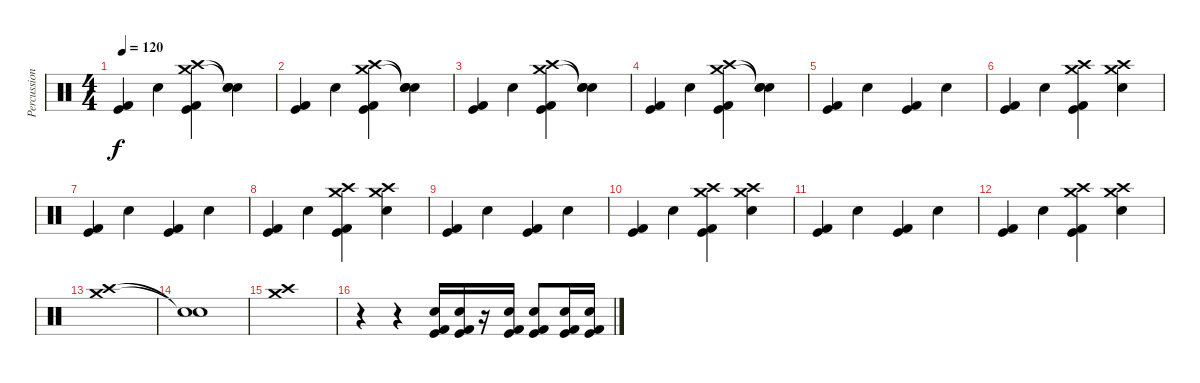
\track ("Percussion" "Percussion") {instrument percussion}
\staff {score}
\articulation defaults
\ts (4 4)
\tempo 120
\clef neutral
\ks c
("Kick (hit)" "Kick (hit) 2").4{dy f} "Snare (hit) 2".4 ("Crash medium (hit)" "Crash high (hit)" "Kick (hit) 2" "Kick (hit)").4 ("Snare (hit)"{t} "Snare (hit)"{t} "Snare (hit) 2").4 |
("Kick (hit)" "Kick (hit) 2").4 "Snare (hit) 2".4 ("Crash medium (hit)" "Crash high (hit)" "Kick (hit) 2" "Kick (hit)").4 ("Snare (hit)"{t} "Snare (hit)"{t} "Snare (hit) 2").4 |
("Kick (hit)" "Kick (hit) 2").4 "Snare (hit) 2".4 ("Crash medium (hit)" "Crash high (hit)" "Kick (hit) 2" "Kick (hit)").4 ("Snare (hit)"{t} "Snare (hit)"{t} "Snare (hit) 2").4 |
("Kick (hit)" "Kick (hit) 2").4 "Snare (hit) 2".4 ("Crash medium (hit)" "Crash high (hit)" "Kick (hit) 2" "Kick (hit)").4 ("Snare (hit)"{t} "Snare (hit)"{t} "Snare (hit) 2").4 |
("Kick (hit)" "Kick (hit) 2").4 "Snare (hit) 2".4 ("Kick (hit) 2" "Kick (hit)").4 "Snare (hit) 2".4 |
("Kick (hit)" "Kick (hit) 2").4 "Snare (hit) 2".4 ("Crash medium (hit)" "Crash high (hit)" "Kick (hit) 2" "Kick (hit)").4 ("Crash medium (hit)" "Crash high (hit)" "Snare (hit) 2").4 |
("Kick (hit)" "Kick (hit) 2").4 "Snare (hit) 2".4 ("Kick (hit) 2" "Kick (hit)").4 "Snare (hit) 2".4 |
("Kick (hit)" "Kick (hit) 2").4 "Snare (hit) 2".4 ("Crash medium (hit)" "Crash high (hit)" "Kick (hit) 2" "Kick (hit)").4 ("Crash medium (hit)" "Crash high (hit)" "Snare (hit) 2").4 |
("Kick (hit)" "Kick (hit) 2").4 "Snare (hit) 2".4 ("Kick (hit) 2" "Kick (hit)").4 "Snare (hit) 2".4 |
("Kick (hit)" "Kick (hit) 2").4 "Snare (hit) 2".4 ("Crash medium (hit)" "Crash high (hit)" "Kick (hit) 2" "Kick (hit)").4 ("Crash medium (hit)" "Crash high (hit)" "Snare (hit) 2").4 |
("Kick (hit)" "Kick (hit) 2").4 "Snare (hit) 2".4 ("Kick (hit) 2" "Kick (hit)").4 "Snare (hit) 2".4 |
("Kick (hit)" "Kick (hit) 2").4 "Snare (hit) 2".4 ("Crash medium (hit)" "Crash high (hit)" "Kick (hit) 2" "Kick (hit)").4 ("Crash medium (hit)" "Crash high (hit)" "Snare (hit) 2").4 |
("Crash medium (hit)" "Crash high (hit)").1 |
("Snare (hit)"{t} "Snare (hit)"{t}).1 |
("Crash medium (hit)" "Crash high (hit)").1 |
r.4 r.4 ("Snare (hit) 2" "Kick (hit) 2" "Kick (hit)").16 ("Snare (hit) 2" "Kick (hit) 2" "Kick (hit)").16 r.16 ("Snare (hit) 2" "Kick (hit) 2" "Kick (hit)").16 ("Snare (hit) 2" "Kick (hit) 2" "Kick (hit)").8 ("Snare (hit) 2" "Kick (hit) 2" "Kick (hit)").16 ("Snare (hit) 2" "Kick (hit) 2" "Kick (hit)").16
